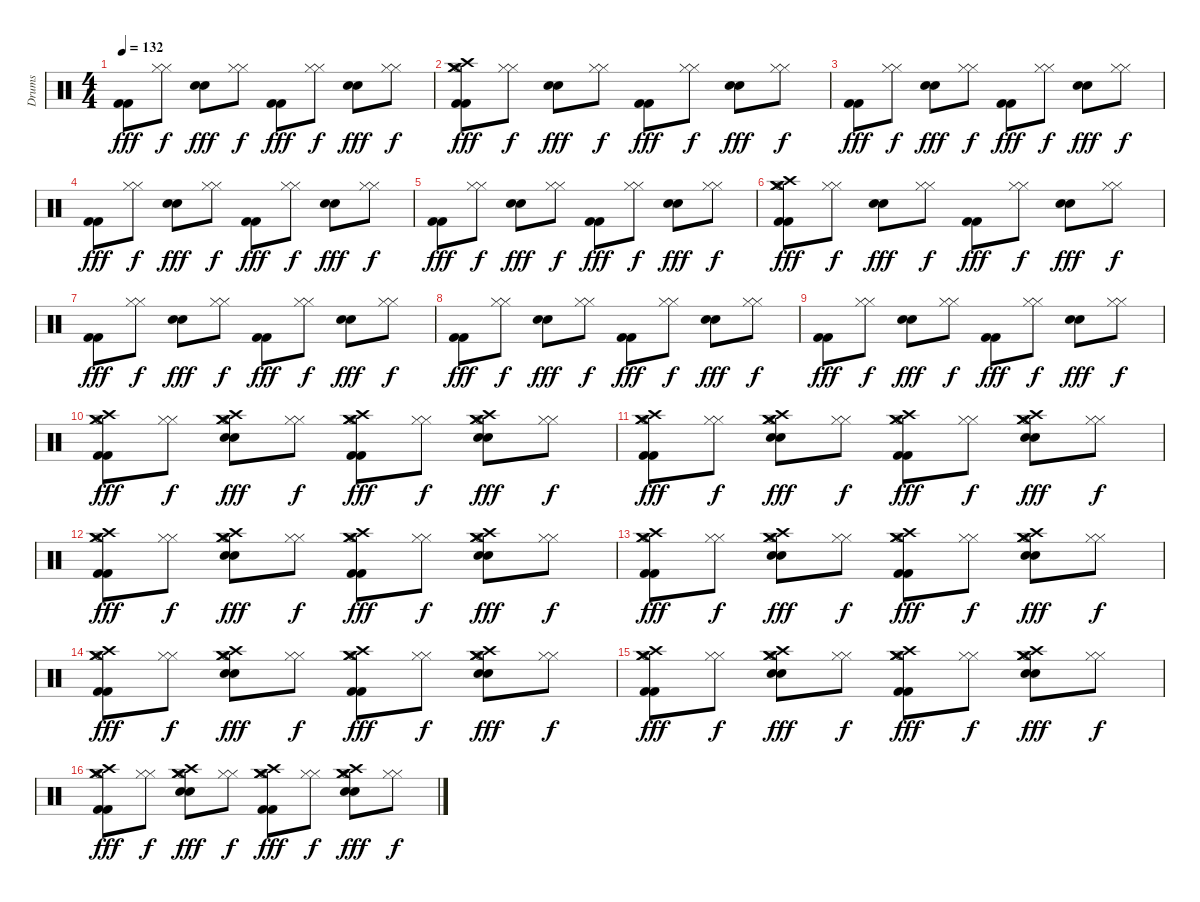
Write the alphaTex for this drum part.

\track ("Drums" "Drums") {instrument percussion}
\staff {score}
\articulation defaults
\ts (4 4)
\tempo 132
\clef neutral
\ks c
("Kick (hit) 2" "Kick (hit) 2").8{dy fff} ("Hi-Hat (closed)" "Hi-Hat (closed)").8{dy f} ("Snare (hit) 2" "Snare (hit) 2").8{dy fff} ("Hi-Hat (closed)" "Hi-Hat (closed)").8{dy f} ("Kick (hit) 2" "Kick (hit) 2").8{dy fff} ("Hi-Hat (closed)" "Hi-Hat (closed)").8{dy f} ("Snare (hit) 2" "Snare (hit) 2").8{dy fff} ("Hi-Hat (closed)" "Hi-Hat (closed)").8{dy f} |
("Kick (hit) 2" "Kick (hit) 2" "Crash high (hit)" "Hi-Hat (open)" "Crash medium (hit)" "Crash medium (hit)").8{dy fff} ("Hi-Hat (closed)" "Hi-Hat (closed)").8{dy f} ("Snare (hit) 2" "Snare (hit) 2").8{dy fff} ("Hi-Hat (closed)" "Hi-Hat (closed)").8{dy f} ("Kick (hit) 2" "Kick (hit) 2").8{dy fff} ("Hi-Hat (closed)" "Hi-Hat (closed)").8{dy f} ("Snare (hit) 2" "Snare (hit) 2").8{dy fff} ("Hi-Hat (closed)" "Hi-Hat (closed)").8{dy f} |
("Kick (hit) 2" "Kick (hit) 2").8{dy fff} ("Hi-Hat (closed)" "Hi-Hat (closed)").8{dy f} ("Snare (hit) 2" "Snare (hit) 2").8{dy fff} ("Hi-Hat (closed)" "Hi-Hat (closed)").8{dy f} ("Kick (hit) 2" "Kick (hit) 2").8{dy fff} ("Hi-Hat (closed)" "Hi-Hat (closed)").8{dy f} ("Snare (hit) 2" "Snare (hit) 2").8{dy fff} ("Hi-Hat (closed)" "Hi-Hat (closed)").8{dy f} |
("Kick (hit) 2" "Kick (hit) 2").8{dy fff} ("Hi-Hat (closed)" "Hi-Hat (closed)").8{dy f} ("Snare (hit) 2" "Snare (hit) 2").8{dy fff} ("Hi-Hat (closed)" "Hi-Hat (closed)").8{dy f} ("Kick (hit) 2" "Kick (hit) 2").8{dy fff} ("Hi-Hat (closed)" "Hi-Hat (closed)").8{dy f} ("Snare (hit) 2" "Snare (hit) 2").8{dy fff} ("Hi-Hat (closed)" "Hi-Hat (closed)").8{dy f} |
("Kick (hit) 2" "Kick (hit) 2").8{dy fff} ("Hi-Hat (closed)" "Hi-Hat (closed)").8{dy f} ("Snare (hit) 2" "Snare (hit) 2").8{dy fff} ("Hi-Hat (closed)" "Hi-Hat (closed)").8{dy f} ("Kick (hit) 2" "Kick (hit) 2").8{dy fff} ("Hi-Hat (closed)" "Hi-Hat (closed)").8{dy f} ("Snare (hit) 2" "Snare (hit) 2").8{dy fff} ("Hi-Hat (closed)" "Hi-Hat (closed)").8{dy f} |
("Kick (hit) 2" "Kick (hit) 2" "Crash high (hit)" "Hi-Hat (open)" "Crash medium (hit)" "Crash medium (hit)").8{dy fff} ("Hi-Hat (closed)" "Hi-Hat (closed)").8{dy f} ("Snare (hit) 2" "Snare (hit) 2").8{dy fff} ("Hi-Hat (closed)" "Hi-Hat (closed)").8{dy f} ("Kick (hit) 2" "Kick (hit) 2").8{dy fff} ("Hi-Hat (closed)" "Hi-Hat (closed)").8{dy f} ("Snare (hit) 2" "Snare (hit) 2").8{dy fff} ("Hi-Hat (closed)" "Hi-Hat (closed)").8{dy f} |
("Kick (hit) 2" "Kick (hit) 2").8{dy fff} ("Hi-Hat (closed)" "Hi-Hat (closed)").8{dy f} ("Snare (hit) 2" "Snare (hit) 2").8{dy fff} ("Hi-Hat (closed)" "Hi-Hat (closed)").8{dy f} ("Kick (hit) 2" "Kick (hit) 2").8{dy fff} ("Hi-Hat (closed)" "Hi-Hat (closed)").8{dy f} ("Snare (hit) 2" "Snare (hit) 2").8{dy fff} ("Hi-Hat (closed)" "Hi-Hat (closed)").8{dy f} |
("Kick (hit) 2" "Kick (hit) 2").8{dy fff} ("Hi-Hat (closed)" "Hi-Hat (closed)").8{dy f} ("Snare (hit) 2" "Snare (hit) 2").8{dy fff} ("Hi-Hat (closed)" "Hi-Hat (closed)").8{dy f} ("Kick (hit) 2" "Kick (hit) 2").8{dy fff} ("Hi-Hat (closed)" "Hi-Hat (closed)").8{dy f} ("Snare (hit) 2" "Snare (hit) 2").8{dy fff} ("Hi-Hat (closed)" "Hi-Hat (closed)").8{dy f} |
("Kick (hit) 2" "Kick (hit) 2").8{dy fff} ("Hi-Hat (closed)" "Hi-Hat (closed)").8{dy f} ("Snare (hit) 2" "Snare (hit) 2").8{dy fff} ("Hi-Hat (closed)" "Hi-Hat (closed)").8{dy f} ("Kick (hit) 2" "Kick (hit) 2").8{dy fff} ("Hi-Hat (closed)" "Hi-Hat (closed)").8{dy f} ("Snare (hit) 2" "Snare (hit) 2").8{dy fff} ("Hi-Hat (closed)" "Hi-Hat (closed)").8{dy f} |
("Kick (hit) 2" "Kick (hit) 2" "Crash high (hit)" "Hi-Hat (open)" "Crash medium (hit)" "Crash medium (hit)").8{dy fff} ("Hi-Hat (closed)" "Hi-Hat (closed)").8{dy f} ("Snare (hit) 2" "Snare (hit) 2" "Crash high (hit)" "Hi-Hat (open)" "Crash medium (hit)" "Crash medium (hit)").8{dy fff} ("Hi-Hat (closed)" "Hi-Hat (closed)").8{dy f} ("Kick (hit) 2" "Kick (hit) 2" "Crash high (hit)" "Hi-Hat (open)" "Crash medium (hit)" "Crash medium (hit)").8{dy fff} ("Hi-Hat (closed)" "Hi-Hat (closed)").8{dy f} ("Snare (hit) 2" "Snare (hit) 2" "Crash high (hit)" "Hi-Hat (open)" "Crash medium (hit)" "Crash medium (hit)").8{dy fff} ("Hi-Hat (closed)" "Hi-Hat (closed)").8{dy f} |
("Kick (hit) 2" "Kick (hit) 2" "Crash high (hit)" "Hi-Hat (open)" "Crash medium (hit)" "Crash medium (hit)").8{dy fff} ("Hi-Hat (closed)" "Hi-Hat (closed)").8{dy f} ("Snare (hit) 2" "Snare (hit) 2" "Crash high (hit)" "Hi-Hat (open)" "Crash medium (hit)" "Crash medium (hit)").8{dy fff} ("Hi-Hat (closed)" "Hi-Hat (closed)").8{dy f} ("Kick (hit) 2" "Kick (hit) 2" "Crash high (hit)" "Hi-Hat (open)" "Crash medium (hit)" "Crash medium (hit)").8{dy fff} ("Hi-Hat (closed)" "Hi-Hat (closed)").8{dy f} ("Snare (hit) 2" "Snare (hit) 2" "Crash high (hit)" "Hi-Hat (open)" "Crash medium (hit)" "Crash medium (hit)").8{dy fff} ("Hi-Hat (closed)" "Hi-Hat (closed)").8{dy f} |
("Kick (hit) 2" "Kick (hit) 2" "Crash high (hit)" "Hi-Hat (open)" "Crash medium (hit)" "Crash medium (hit)").8{dy fff} ("Hi-Hat (closed)" "Hi-Hat (closed)").8{dy f} ("Snare (hit) 2" "Snare (hit) 2" "Crash high (hit)" "Hi-Hat (open)" "Crash medium (hit)" "Crash medium (hit)").8{dy fff} ("Hi-Hat (closed)" "Hi-Hat (closed)").8{dy f} ("Kick (hit) 2" "Kick (hit) 2" "Crash high (hit)" "Hi-Hat (open)" "Crash medium (hit)" "Crash medium (hit)").8{dy fff} ("Hi-Hat (closed)" "Hi-Hat (closed)").8{dy f} ("Snare (hit) 2" "Snare (hit) 2" "Crash high (hit)" "Hi-Hat (open)" "Crash medium (hit)" "Crash medium (hit)").8{dy fff} ("Hi-Hat (closed)" "Hi-Hat (closed)").8{dy f} |
("Kick (hit) 2" "Kick (hit) 2" "Crash high (hit)" "Hi-Hat (open)" "Crash medium (hit)" "Crash medium (hit)").8{dy fff} ("Hi-Hat (closed)" "Hi-Hat (closed)").8{dy f} ("Snare (hit) 2" "Snare (hit) 2" "Crash high (hit)" "Hi-Hat (open)" "Crash medium (hit)" "Crash medium (hit)").8{dy fff} ("Hi-Hat (closed)" "Hi-Hat (closed)").8{dy f} ("Kick (hit) 2" "Kick (hit) 2" "Crash high (hit)" "Hi-Hat (open)" "Crash medium (hit)" "Crash medium (hit)").8{dy fff} ("Hi-Hat (closed)" "Hi-Hat (closed)").8{dy f} ("Snare (hit) 2" "Snare (hit) 2" "Crash high (hit)" "Hi-Hat (open)" "Crash medium (hit)" "Crash medium (hit)").8{dy fff} ("Hi-Hat (closed)" "Hi-Hat (closed)").8{dy f} |
("Kick (hit) 2" "Kick (hit) 2" "Crash high (hit)" "Hi-Hat (open)" "Crash medium (hit)" "Crash medium (hit)").8{dy fff} ("Hi-Hat (closed)" "Hi-Hat (closed)").8{dy f} ("Snare (hit) 2" "Snare (hit) 2" "Crash high (hit)" "Hi-Hat (open)" "Crash medium (hit)" "Crash medium (hit)").8{dy fff} ("Hi-Hat (closed)" "Hi-Hat (closed)").8{dy f} ("Kick (hit) 2" "Kick (hit) 2" "Crash high (hit)" "Hi-Hat (open)" "Crash medium (hit)" "Crash medium (hit)").8{dy fff} ("Hi-Hat (closed)" "Hi-Hat (closed)").8{dy f} ("Snare (hit) 2" "Snare (hit) 2" "Crash high (hit)" "Hi-Hat (open)" "Crash medium (hit)" "Crash medium (hit)").8{dy fff} ("Hi-Hat (closed)" "Hi-Hat (closed)").8{dy f} |
("Kick (hit) 2" "Kick (hit) 2" "Crash high (hit)" "Hi-Hat (open)" "Crash medium (hit)" "Crash medium (hit)").8{dy fff} ("Hi-Hat (closed)" "Hi-Hat (closed)").8{dy f} ("Snare (hit) 2" "Snare (hit) 2" "Crash high (hit)" "Hi-Hat (open)" "Crash medium (hit)" "Crash medium (hit)").8{dy fff} ("Hi-Hat (closed)" "Hi-Hat (closed)").8{dy f} ("Kick (hit) 2" "Kick (hit) 2" "Crash high (hit)" "Hi-Hat (open)" "Crash medium (hit)" "Crash medium (hit)").8{dy fff} ("Hi-Hat (closed)" "Hi-Hat (closed)").8{dy f} ("Snare (hit) 2" "Snare (hit) 2" "Crash high (hit)" "Hi-Hat (open)" "Crash medium (hit)" "Crash medium (hit)").8{dy fff} ("Hi-Hat (closed)" "Hi-Hat (closed)").8{dy f} |
("Kick (hit) 2" "Kick (hit) 2" "Crash high (hit)" "Hi-Hat (open)" "Crash medium (hit)" "Crash medium (hit)").8{dy fff} ("Hi-Hat (closed)" "Hi-Hat (closed)").8{dy f} ("Snare (hit) 2" "Snare (hit) 2" "Crash high (hit)" "Hi-Hat (open)" "Crash medium (hit)" "Crash medium (hit)").8{dy fff} ("Hi-Hat (closed)" "Hi-Hat (closed)").8{dy f} ("Kick (hit) 2" "Kick (hit) 2" "Crash high (hit)" "Hi-Hat (open)" "Crash medium (hit)" "Crash medium (hit)").8{dy fff} ("Hi-Hat (closed)" "Hi-Hat (closed)").8{dy f} ("Snare (hit) 2" "Snare (hit) 2" "Crash high (hit)" "Hi-Hat (open)" "Crash medium (hit)" "Crash medium (hit)").8{dy fff} ("Hi-Hat (closed)" "Hi-Hat (closed)").8{dy f}
